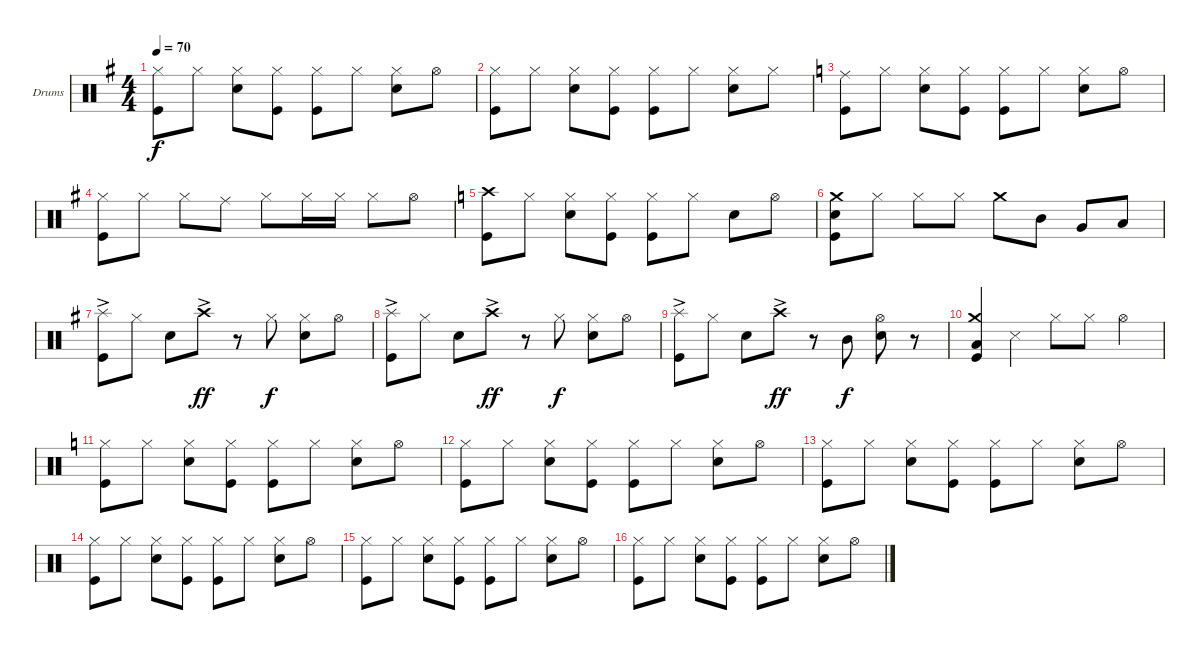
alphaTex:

\bracketExtendMode groupsimilarinstruments
\firstSystemTrackNameOrientation horizontal
\otherSystemsTrackNameOrientation horizontal
\track ("Drumkit" "Drums") {instrument percussion}
\staff {score}
\articulation defaults
\ts (4 4)
\tempo 70
\clef neutral
\ks g
("Hi-Hat (closed)" "Kick (hit)").8{dy f} "Hi-Hat (closed)".8 ("Hi-Hat (closed)" "Snare (hit) 2").8 ("Hi-Hat (closed)" "Kick (hit)").8 ("Hi-Hat (closed)" "Kick (hit)").8 "Hi-Hat (closed)".8 ("Hi-Hat (closed)" "Snare (hit) 2").8 "Hi-Hat (open)".8 |
("Hi-Hat (closed)" "Kick (hit)").8 "Hi-Hat (closed)".8 ("Hi-Hat (closed)" "Snare (hit) 2").8 ("Hi-Hat (closed)" "Kick (hit)").8 ("Hi-Hat (closed)" "Kick (hit)").8 "Hi-Hat (closed)".8 ("Hi-Hat (closed)" "Snare (hit) 2").8 "Hi-Hat (closed)".8 |
\ks c
("Ride (middle)" "Kick (hit)").8 "Hi-Hat (closed)".8 ("Hi-Hat (closed)" "Snare (hit) 2").8 ("Hi-Hat (closed)" "Kick (hit)").8 ("Hi-Hat (closed)" "Kick (hit)").8 "Hi-Hat (closed)".8 ("Hi-Hat (closed)" "Snare (hit) 2").8 "Hi-Hat (open)".8 |
\ks g
("Hi-Hat (closed)" "Kick (hit)").8 "Hi-Hat (closed)".8 "Hi-Hat (closed)".8 "Ride (middle)".8 "Hi-Hat (closed)".8 "Hi-Hat (closed)".16 "Hi-Hat (closed)".16 "Hi-Hat (closed)".8 "Hi-Hat (open)".8 |
\ks c
("Crash high (hit)" "Kick (hit)").8 "Hi-Hat (closed)".8 ("Hi-Hat (closed)" "Snare (hit) 2").8 ("Hi-Hat (closed)" "Kick (hit)").8 ("Hi-Hat (closed)" "Kick (hit)").8 "Hi-Hat (closed)".8 "Snare (hit) 2".8 "Hi-Hat (open)".8 |
("Crash medium (hit)" "Snare (hit) 2" "Kick (hit)").8 "Hi-Hat (closed)".8 "Hi-Hat (closed)".8 "Hi-Hat (closed)".8 "Crash medium (hit)".8 "Mid Tom (hit)".8 "Very Low Tom (hit)".8 "Low Tom (hit)".8 |
\ks g
("Splash (hit)"{ac} "Kick (hit)").8 "Hi-Hat (closed)".8 "Snare (hit) 2".8 "Crash high (hit)"{ac}.8{dy ff} r.8 "Hi-Hat (closed)".8{dy f} ("Hi-Hat (closed)" "Snare (hit) 2").8 "Hi-Hat (open)".8 |
("Splash (hit)"{ac} "Kick (hit)").8 "Hi-Hat (closed)".8 "Snare (hit) 2".8 "Crash high (hit)"{ac}.8{dy ff} r.8 "Hi-Hat (closed)".8{dy f} ("Hi-Hat (closed)" "Snare (hit) 2").8 "Hi-Hat (open)".8 |
("Splash (hit)"{ac} "Kick (hit)").8 "Hi-Hat (closed)".8 "Snare (hit) 2".8 "Crash high (hit)"{ac}.8{dy ff} r.8 "Mid Tom (hit)".8{dy f} ("Hi-Hat (open)" "Snare (hit) 2").8 r.8 |
("Crash medium (hit)" "Low Tom (hit)" "Kick (hit)").4 "Snare (side stick) 3".4 "Hi-Hat (closed)".8 "Hi-Hat (closed)".8 "Hi-Hat (open)".4 |
\ks c
("Hi-Hat (closed)" "Kick (hit)").8 "Hi-Hat (closed)".8 ("Hi-Hat (closed)" "Snare (hit) 2").8 ("Hi-Hat (closed)" "Kick (hit)").8 ("Hi-Hat (closed)" "Kick (hit)").8 "Hi-Hat (closed)".8 ("Hi-Hat (closed)" "Snare (hit) 2").8 "Hi-Hat (open)".8 |
("Hi-Hat (closed)" "Kick (hit)").8 "Hi-Hat (closed)".8 ("Hi-Hat (closed)" "Snare (hit) 2").8 ("Hi-Hat (closed)" "Kick (hit)").8 ("Hi-Hat (closed)" "Kick (hit)").8 "Hi-Hat (closed)".8 ("Hi-Hat (closed)" "Snare (hit) 2").8 "Hi-Hat (open)".8 |
("Hi-Hat (closed)" "Kick (hit)").8 "Hi-Hat (closed)".8 ("Hi-Hat (closed)" "Snare (hit) 2").8 ("Hi-Hat (closed)" "Kick (hit)").8 ("Hi-Hat (closed)" "Kick (hit)").8 "Hi-Hat (closed)".8 ("Hi-Hat (closed)" "Snare (hit) 2").8 "Hi-Hat (open)".8 |
("Hi-Hat (closed)" "Kick (hit)").8 "Hi-Hat (closed)".8 ("Hi-Hat (closed)" "Snare (hit) 2").8 ("Hi-Hat (closed)" "Kick (hit)").8 ("Hi-Hat (closed)" "Kick (hit)").8 "Hi-Hat (closed)".8 ("Hi-Hat (closed)" "Snare (hit) 2").8 "Hi-Hat (open)".8 |
("Hi-Hat (closed)" "Kick (hit)").8 "Hi-Hat (closed)".8 ("Hi-Hat (closed)" "Snare (hit) 2").8 ("Hi-Hat (closed)" "Kick (hit)").8 ("Hi-Hat (closed)" "Kick (hit)").8 "Hi-Hat (closed)".8 ("Hi-Hat (closed)" "Snare (hit) 2").8 "Hi-Hat (open)".8 |
("Hi-Hat (closed)" "Kick (hit)").8 "Hi-Hat (closed)".8 ("Hi-Hat (closed)" "Snare (hit) 2").8 ("Hi-Hat (closed)" "Kick (hit)").8 ("Hi-Hat (closed)" "Kick (hit)").8 "Hi-Hat (closed)".8 ("Hi-Hat (closed)" "Snare (hit) 2").8 "Hi-Hat (open)".8
